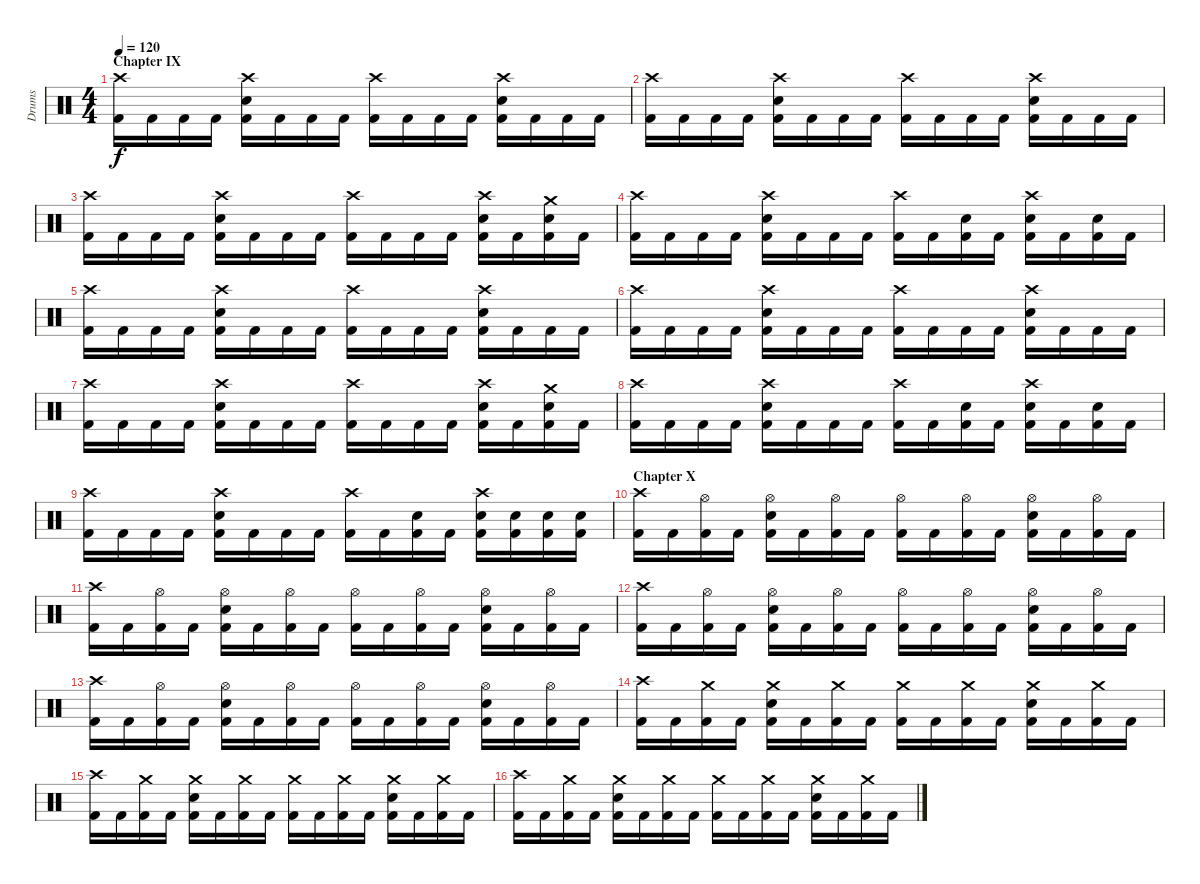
\track ("Drums" "Drums") {instrument percussion}
\staff {score}
\articulation defaults
\ts (4 4)
\section ("" "Chapter IX")
\tempo 120
\clef neutral
\ks c
("Crash high (hit)" "Kick (hit) 2").16{dy f} "Kick (hit) 2".16 "Kick (hit) 2".16 "Kick (hit) 2".16 ("Crash high (hit)" "Electric Snare (hit)" "Kick (hit) 2").16 "Kick (hit) 2".16 "Kick (hit) 2".16 "Kick (hit) 2".16 ("Crash high (hit)" "Kick (hit) 2").16 "Kick (hit) 2".16 "Kick (hit) 2".16 "Kick (hit) 2".16 ("Crash high (hit)" "Electric Snare (hit)" "Kick (hit) 2").16 "Kick (hit) 2".16 "Kick (hit) 2".16 "Kick (hit) 2".16 |
("Crash high (hit)" "Kick (hit) 2").16 "Kick (hit) 2".16 "Kick (hit) 2".16 "Kick (hit) 2".16 ("Crash high (hit)" "Electric Snare (hit)" "Kick (hit) 2").16 "Kick (hit) 2".16 "Kick (hit) 2".16 "Kick (hit) 2".16 ("Crash high (hit)" "Kick (hit) 2").16 "Kick (hit) 2".16 "Kick (hit) 2".16 "Kick (hit) 2".16 ("Crash high (hit)" "Electric Snare (hit)" "Kick (hit) 2").16 "Kick (hit) 2".16 "Kick (hit) 2".16 "Kick (hit) 2".16 |
("Crash high (hit)" "Kick (hit) 2").16 "Kick (hit) 2".16 "Kick (hit) 2".16 "Kick (hit) 2".16 ("Crash high (hit)" "Electric Snare (hit)" "Kick (hit) 2").16 "Kick (hit) 2".16 "Kick (hit) 2".16 "Kick (hit) 2".16 ("Crash high (hit)" "Kick (hit) 2").16 "Kick (hit) 2".16 "Kick (hit) 2".16 "Kick (hit) 2".16 ("Crash high (hit)" "Electric Snare (hit)" "Kick (hit) 2").16 "Kick (hit) 2".16 ("Crash medium (hit)" "Electric Snare (hit)" "Kick (hit) 2").16 "Kick (hit) 2".16 |
("Crash high (hit)" "Kick (hit) 2").16 "Kick (hit) 2".16 "Kick (hit) 2".16 "Kick (hit) 2".16 ("Crash high (hit)" "Electric Snare (hit)" "Kick (hit) 2").16 "Kick (hit) 2".16 "Kick (hit) 2".16 "Kick (hit) 2".16 ("Crash high (hit)" "Kick (hit) 2").16 "Kick (hit) 2".16 ("Electric Snare (hit)" "Kick (hit) 2").16 "Kick (hit) 2".16 ("Crash high (hit)" "Electric Snare (hit)" "Kick (hit) 2").16 "Kick (hit) 2".16 ("Electric Snare (hit)" "Kick (hit) 2").16 "Kick (hit) 2".16 |
("Crash high (hit)" "Kick (hit) 2").16 "Kick (hit) 2".16 "Kick (hit) 2".16 "Kick (hit) 2".16 ("Crash high (hit)" "Electric Snare (hit)" "Kick (hit) 2").16 "Kick (hit) 2".16 "Kick (hit) 2".16 "Kick (hit) 2".16 ("Crash high (hit)" "Kick (hit) 2").16 "Kick (hit) 2".16 "Kick (hit) 2".16 "Kick (hit) 2".16 ("Crash high (hit)" "Electric Snare (hit)" "Kick (hit) 2").16 "Kick (hit) 2".16 "Kick (hit) 2".16 "Kick (hit) 2".16 |
("Crash high (hit)" "Kick (hit) 2").16 "Kick (hit) 2".16 "Kick (hit) 2".16 "Kick (hit) 2".16 ("Crash high (hit)" "Electric Snare (hit)" "Kick (hit) 2").16 "Kick (hit) 2".16 "Kick (hit) 2".16 "Kick (hit) 2".16 ("Crash high (hit)" "Kick (hit) 2").16 "Kick (hit) 2".16 "Kick (hit) 2".16 "Kick (hit) 2".16 ("Crash high (hit)" "Electric Snare (hit)" "Kick (hit) 2").16 "Kick (hit) 2".16 "Kick (hit) 2".16 "Kick (hit) 2".16 |
("Crash high (hit)" "Kick (hit) 2").16 "Kick (hit) 2".16 "Kick (hit) 2".16 "Kick (hit) 2".16 ("Crash high (hit)" "Electric Snare (hit)" "Kick (hit) 2").16 "Kick (hit) 2".16 "Kick (hit) 2".16 "Kick (hit) 2".16 ("Crash high (hit)" "Kick (hit) 2").16 "Kick (hit) 2".16 "Kick (hit) 2".16 "Kick (hit) 2".16 ("Crash high (hit)" "Electric Snare (hit)" "Kick (hit) 2").16 "Kick (hit) 2".16 ("Crash medium (hit)" "Electric Snare (hit)" "Kick (hit) 2").16 "Kick (hit) 2".16 |
("Crash high (hit)" "Kick (hit) 2").16 "Kick (hit) 2".16 "Kick (hit) 2".16 "Kick (hit) 2".16 ("Crash high (hit)" "Electric Snare (hit)" "Kick (hit) 2").16 "Kick (hit) 2".16 "Kick (hit) 2".16 "Kick (hit) 2".16 ("Crash high (hit)" "Kick (hit) 2").16 "Kick (hit) 2".16 ("Electric Snare (hit)" "Kick (hit) 2").16 "Kick (hit) 2".16 ("Crash high (hit)" "Electric Snare (hit)" "Kick (hit) 2").16 "Kick (hit) 2".16 ("Electric Snare (hit)" "Kick (hit) 2").16 "Kick (hit) 2".16 |
("Crash high (hit)" "Kick (hit) 2").16 "Kick (hit) 2".16 "Kick (hit) 2".16 "Kick (hit) 2".16 ("Crash high (hit)" "Electric Snare (hit)" "Kick (hit) 2").16 "Kick (hit) 2".16 "Kick (hit) 2".16 "Kick (hit) 2".16 ("Crash high (hit)" "Kick (hit) 2").16 "Kick (hit) 2".16 ("Electric Snare (hit)" "Kick (hit) 2").16 "Kick (hit) 2".16 ("Crash high (hit)" "Electric Snare (hit)" "Kick (hit) 2").16 ("Electric Snare (hit)" "Kick (hit) 2").16 ("Electric Snare (hit)" "Kick (hit) 2").16 ("Electric Snare (hit)" "Kick (hit) 2").16 |
\section ("" "Chapter X")
("Crash high (hit)" "Kick (hit) 2").16 "Kick (hit) 2".16 ("Hi-Hat (open)" "Kick (hit) 2").16 "Kick (hit) 2".16 ("Hi-Hat (open)" "Electric Snare (hit)" "Kick (hit) 2").16 "Kick (hit) 2".16 ("Hi-Hat (open)" "Kick (hit) 2").16 "Kick (hit) 2".16 ("Hi-Hat (open)" "Kick (hit) 2").16 "Kick (hit) 2".16 ("Hi-Hat (open)" "Kick (hit) 2").16 "Kick (hit) 2".16 ("Hi-Hat (open)" "Electric Snare (hit)" "Kick (hit) 2").16 "Kick (hit) 2".16 ("Hi-Hat (open)" "Kick (hit) 2").16 "Kick (hit) 2".16 |
("Crash high (hit)" "Kick (hit) 2").16 "Kick (hit) 2".16 ("Hi-Hat (open)" "Kick (hit) 2").16 "Kick (hit) 2".16 ("Hi-Hat (open)" "Electric Snare (hit)" "Kick (hit) 2").16 "Kick (hit) 2".16 ("Hi-Hat (open)" "Kick (hit) 2").16 "Kick (hit) 2".16 ("Hi-Hat (open)" "Kick (hit) 2").16 "Kick (hit) 2".16 ("Hi-Hat (open)" "Kick (hit) 2").16 "Kick (hit) 2".16 ("Hi-Hat (open)" "Electric Snare (hit)" "Kick (hit) 2").16 "Kick (hit) 2".16 ("Hi-Hat (open)" "Kick (hit) 2").16 "Kick (hit) 2".16 |
("Crash high (hit)" "Kick (hit) 2").16 "Kick (hit) 2".16 ("Hi-Hat (open)" "Kick (hit) 2").16 "Kick (hit) 2".16 ("Hi-Hat (open)" "Electric Snare (hit)" "Kick (hit) 2").16 "Kick (hit) 2".16 ("Hi-Hat (open)" "Kick (hit) 2").16 "Kick (hit) 2".16 ("Hi-Hat (open)" "Kick (hit) 2").16 "Kick (hit) 2".16 ("Hi-Hat (open)" "Kick (hit) 2").16 "Kick (hit) 2".16 ("Hi-Hat (open)" "Electric Snare (hit)" "Kick (hit) 2").16 "Kick (hit) 2".16 ("Hi-Hat (open)" "Kick (hit) 2").16 "Kick (hit) 2".16 |
("Crash high (hit)" "Kick (hit) 2").16 "Kick (hit) 2".16 ("Hi-Hat (open)" "Kick (hit) 2").16 "Kick (hit) 2".16 ("Hi-Hat (open)" "Electric Snare (hit)" "Kick (hit) 2").16 "Kick (hit) 2".16 ("Hi-Hat (open)" "Kick (hit) 2").16 "Kick (hit) 2".16 ("Hi-Hat (open)" "Kick (hit) 2").16 "Kick (hit) 2".16 ("Hi-Hat (open)" "Kick (hit) 2").16 "Kick (hit) 2".16 ("Hi-Hat (open)" "Electric Snare (hit)" "Kick (hit) 2").16 "Kick (hit) 2".16 ("Hi-Hat (open)" "Kick (hit) 2").16 "Kick (hit) 2".16 |
("Crash high (hit)" "Kick (hit) 2").16 "Kick (hit) 2".16 ("Crash medium (hit)" "Kick (hit) 2").16 "Kick (hit) 2".16 ("Crash medium (hit)" "Electric Snare (hit)" "Kick (hit) 2").16 "Kick (hit) 2".16 ("Crash medium (hit)" "Kick (hit) 2").16 "Kick (hit) 2".16 ("Crash medium (hit)" "Kick (hit) 2").16 "Kick (hit) 2".16 ("Crash medium (hit)" "Kick (hit) 2").16 "Kick (hit) 2".16 ("Crash medium (hit)" "Electric Snare (hit)" "Kick (hit) 2").16 "Kick (hit) 2".16 ("Crash medium (hit)" "Kick (hit) 2").16 "Kick (hit) 2".16 |
("Crash high (hit)" "Kick (hit) 2").16 "Kick (hit) 2".16 ("Crash medium (hit)" "Kick (hit) 2").16 "Kick (hit) 2".16 ("Crash medium (hit)" "Electric Snare (hit)" "Kick (hit) 2").16 "Kick (hit) 2".16 ("Crash medium (hit)" "Kick (hit) 2").16 "Kick (hit) 2".16 ("Crash medium (hit)" "Kick (hit) 2").16 "Kick (hit) 2".16 ("Crash medium (hit)" "Kick (hit) 2").16 "Kick (hit) 2".16 ("Crash medium (hit)" "Electric Snare (hit)" "Kick (hit) 2").16 "Kick (hit) 2".16 ("Crash medium (hit)" "Kick (hit) 2").16 "Kick (hit) 2".16 |
("Crash high (hit)" "Kick (hit) 2").16 "Kick (hit) 2".16 ("Crash medium (hit)" "Kick (hit) 2").16 "Kick (hit) 2".16 ("Crash medium (hit)" "Electric Snare (hit)" "Kick (hit) 2").16 "Kick (hit) 2".16 ("Crash medium (hit)" "Kick (hit) 2").16 "Kick (hit) 2".16 ("Crash medium (hit)" "Kick (hit) 2").16 "Kick (hit) 2".16 ("Crash medium (hit)" "Kick (hit) 2").16 "Kick (hit) 2".16 ("Crash medium (hit)" "Electric Snare (hit)" "Kick (hit) 2").16 "Kick (hit) 2".16 ("Crash medium (hit)" "Kick (hit) 2").16 "Kick (hit) 2".16
